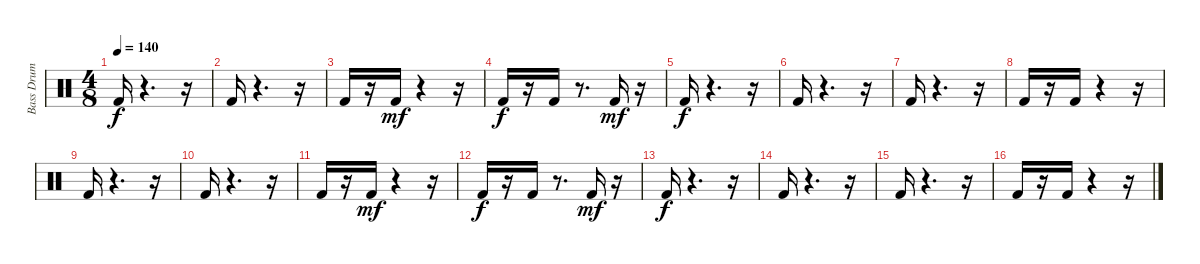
\track ("Bass Drum" "Bass Drum") {instrument percussion}
\staff {score}
\articulation defaults
\ts (4 8)
\tempo 140
\clef neutral
\ks c "Kick (hit) 2".16{dy f}
r.4{d} r.16 |
"Kick (hit) 2".16 r.4{d} r.16 |
"Kick (hit) 2".16 r.16 "Kick (hit) 2".16{dy mf} r.4 r.16 |
"Kick (hit) 2".16{dy f} r.16 "Kick (hit) 2".16 r.8{d} "Kick (hit) 2".16{dy mf} r.16 |
"Kick (hit) 2".16{dy f} r.4{d} r.16 |
"Kick (hit) 2".16 r.4{d} r.16 |
"Kick (hit) 2".16 r.4{d} r.16 |
"Kick (hit) 2".16 r.16 "Kick (hit) 2".16 r.4 r.16 |
"Kick (hit) 2".16 r.4{d} r.16 |
"Kick (hit) 2".16 r.4{d} r.16 |
"Kick (hit) 2".16 r.16 "Kick (hit) 2".16{dy mf} r.4 r.16 |
"Kick (hit) 2".16{dy f} r.16 "Kick (hit) 2".16 r.8{d} "Kick (hit) 2".16{dy mf} r.16 |
"Kick (hit) 2".16{dy f} r.4{d} r.16 |
"Kick (hit) 2".16 r.4{d} r.16 |
"Kick (hit) 2".16 r.4{d} r.16 |
"Kick (hit) 2".16 r.16 "Kick (hit) 2".16 r.4 r.16
